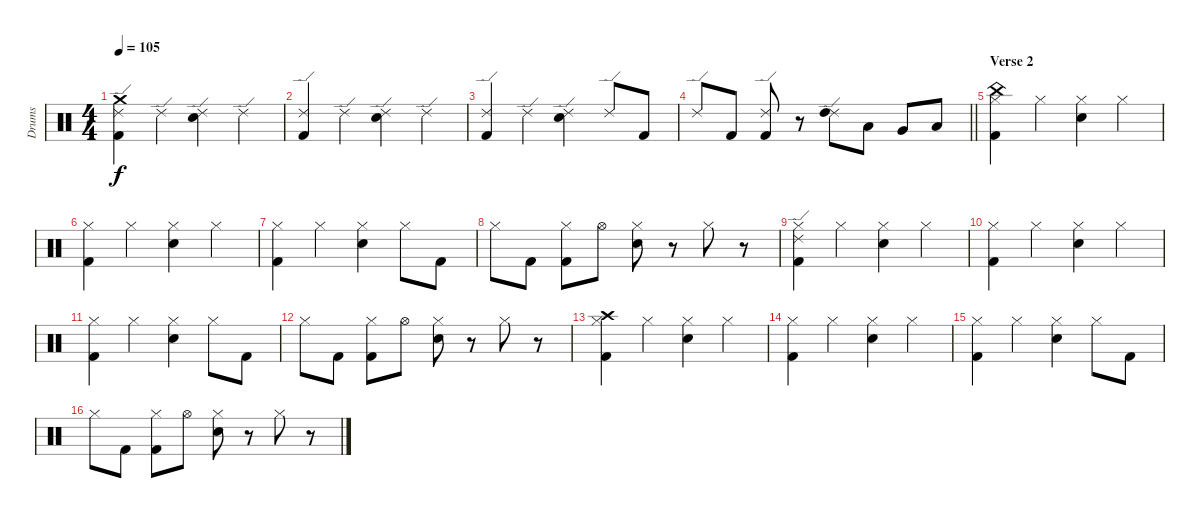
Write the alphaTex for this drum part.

\track ("Drums" "Drums") {instrument percussion}
\staff {score}
\articulation defaults
\ts (4 4)
\tempo 105
\clef neutral
\ks c
("Crash medium (hit)" "Ride (edge) 2" "Kick (hit) 2").4{dy f} "Ride (edge) 2".4 ("Ride (edge) 2" "Electric Snare (hit)").4 "Ride (edge) 2".4 |
("Ride (edge) 2" "Kick (hit) 2").4 "Ride (edge) 2".4 ("Ride (edge) 2" "Electric Snare (hit)").4 "Ride (edge) 2".4 |
("Ride (edge) 2" "Kick (hit) 2").4 "Ride (edge) 2".4 ("Ride (edge) 2" "Electric Snare (hit)").4 "Ride (edge) 2".8 "Kick (hit) 2".8 |
\barLineRight lightlight "Ride (edge) 2".8 "Kick (hit) 2".8
("Ride (edge) 2" "Kick (hit) 2").8 r.8 ("Ride (edge) 2" "High Tom (hit)").8 "Low Tom (hit)".8 "Very Low Tom (hit)".8 "Low Floor Tom (hit)".8 |
\section ("" "Verse 2")
("China (hit)" "Hi-Hat (closed)" "Kick (hit) 2").4 "Hi-Hat (closed)".4 ("Hi-Hat (closed)" "Electric Snare (hit)").4 "Hi-Hat (closed)".4 |
("Hi-Hat (closed)" "Kick (hit) 2").4 "Hi-Hat (closed)".4 ("Hi-Hat (closed)" "Electric Snare (hit)").4 "Hi-Hat (closed)".4 |
("Hi-Hat (closed)" "Kick (hit) 2").4 "Hi-Hat (closed)".4 ("Hi-Hat (closed)" "Electric Snare (hit)").4 "Hi-Hat (closed)".8 "Kick (hit) 2".8 |
"Hi-Hat (closed)".8 "Kick (hit) 2".8 ("Hi-Hat (closed)" "Kick (hit) 2").8 "Hi-Hat (open)".8 ("Hi-Hat (closed)" "Electric Snare (hit)").8 r.8 "Hi-Hat (closed)".8 r.8 |
("Ride (edge) 2" "Hi-Hat (closed)" "Kick (hit) 2").4 "Hi-Hat (closed)".4 ("Hi-Hat (closed)" "Electric Snare (hit)").4 "Hi-Hat (closed)".4 |
("Hi-Hat (closed)" "Kick (hit) 2").4 "Hi-Hat (closed)".4 ("Hi-Hat (closed)" "Electric Snare (hit)").4 "Hi-Hat (closed)".4 |
("Hi-Hat (closed)" "Kick (hit) 2").4 "Hi-Hat (closed)".4 ("Hi-Hat (closed)" "Electric Snare (hit)").4 "Hi-Hat (closed)".8 "Kick (hit) 2".8 |
"Hi-Hat (closed)".8 "Kick (hit) 2".8 ("Hi-Hat (closed)" "Kick (hit) 2").8 "Hi-Hat (open)".8 ("Hi-Hat (closed)" "Electric Snare (hit)").8 r.8 "Hi-Hat (closed)".8 r.8 |
("Crash high (hit)" "Hi-Hat (closed)" "Kick (hit) 2").4 "Hi-Hat (closed)".4 ("Hi-Hat (closed)" "Electric Snare (hit)").4 "Hi-Hat (closed)".4 |
("Hi-Hat (closed)" "Kick (hit) 2").4 "Hi-Hat (closed)".4 ("Hi-Hat (closed)" "Electric Snare (hit)").4 "Hi-Hat (closed)".4 |
("Hi-Hat (closed)" "Kick (hit) 2").4 "Hi-Hat (closed)".4 ("Hi-Hat (closed)" "Electric Snare (hit)").4 "Hi-Hat (closed)".8 "Kick (hit) 2".8 |
"Hi-Hat (closed)".8 "Kick (hit) 2".8 ("Hi-Hat (closed)" "Kick (hit) 2").8 "Hi-Hat (open)".8 ("Hi-Hat (closed)" "Electric Snare (hit)").8 r.8 "Hi-Hat (closed)".8 r.8
